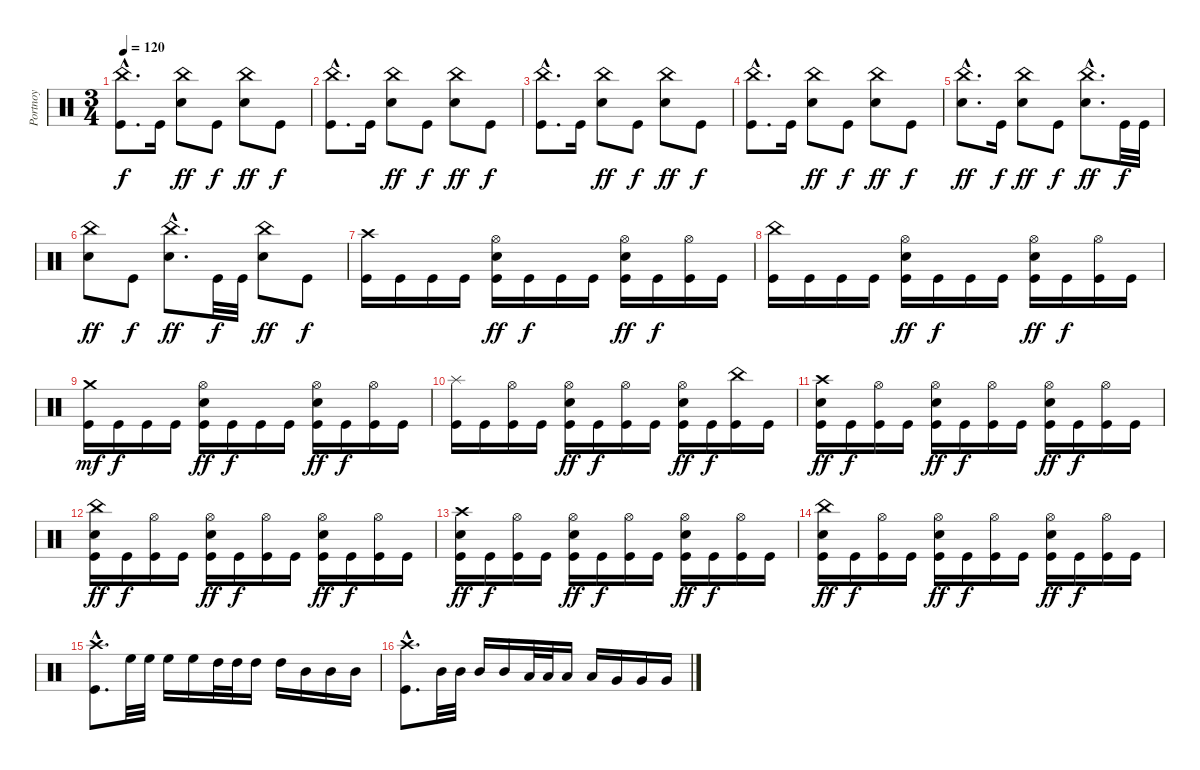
\track ("Portnoy" "Portnoy") {instrument percussion}
\staff {score}
\articulation defaults
\ts (3 4)
\tempo 120
\clef neutral
\ks c
("China (hit)"{hac} "Kick (hit)"{hac}).8{d dy f} "Kick (hit)".16 ("China (hit)" "Electric Snare (hit)").8{dy ff} "Kick (hit)".8{dy f} ("China (hit)" "Electric Snare (hit)").8{dy ff} "Kick (hit)".8{dy f} |
("China (hit)"{hac} "Kick (hit)"{hac}).8{d} "Kick (hit)".16 ("China (hit)" "Electric Snare (hit)").8{dy ff} "Kick (hit)".8{dy f} ("China (hit)" "Electric Snare (hit)").8{dy ff} "Kick (hit)".8{dy f} |
("China (hit)"{hac} "Kick (hit)"{hac}).8{d} "Kick (hit)".16 ("China (hit)" "Electric Snare (hit)").8{dy ff} "Kick (hit)".8{dy f} ("China (hit)" "Electric Snare (hit)").8{dy ff} "Kick (hit)".8{dy f} |
("China (hit)"{hac} "Kick (hit)"{hac}).8{d} "Kick (hit)".16 ("China (hit)" "Electric Snare (hit)").8{dy ff} "Kick (hit)".8{dy f} ("China (hit)" "Electric Snare (hit)").8{dy ff} "Kick (hit)".8{dy f} |
("China (hit)"{hac} "Electric Snare (hit)"{hac}).8{d dy ff} "Kick (hit)".16{dy f} ("China (hit)" "Electric Snare (hit)").8{dy ff} "Kick (hit)".8{dy f} ("China (hit)"{hac} "Electric Snare (hit)"{hac}).8{d dy ff} "Kick (hit)".32{dy f} "Kick (hit)".32 |
("China (hit)" "Electric Snare (hit)").8{dy ff} "Kick (hit)".8{dy f} ("China (hit)"{hac} "Electric Snare (hit)"{hac}).8{d dy ff} "Kick (hit)".32{dy f} "Kick (hit)".32 ("China (hit)" "Electric Snare (hit)").8{dy ff} "Kick (hit)".8{dy f} |
("Crash high (hit)" "Kick (hit)").16 "Kick (hit)".16 "Kick (hit)".16 "Kick (hit)".16 ("Hi-Hat (open)" "Electric Snare (hit)" "Kick (hit)").16{dy ff} "Kick (hit)".16{dy f} "Kick (hit)".16 "Kick (hit)".16 ("Hi-Hat (open)" "Electric Snare (hit)" "Kick (hit)").16{dy ff} "Kick (hit)".16{dy f} ("Hi-Hat (open)" "Kick (hit)").16 "Kick (hit)".16 |
("China (hit)" "Kick (hit)").16 "Kick (hit)".16 "Kick (hit)".16 "Kick (hit)".16 ("Hi-Hat (open)" "Electric Snare (hit)" "Kick (hit)").16{dy ff} "Kick (hit)".16{dy f} "Kick (hit)".16 "Kick (hit)".16 ("Hi-Hat (open)" "Electric Snare (hit)" "Kick (hit)").16{dy ff} "Kick (hit)".16{dy f} ("Hi-Hat (open)" "Kick (hit)").16 "Kick (hit)".16 |
("Crash medium (hit)" "Kick (hit)").16{dy mf} "Kick (hit)".16{dy f} "Kick (hit)".16 "Kick (hit)".16 ("Hi-Hat (open)" "Electric Snare (hit)" "Kick (hit)").16{dy ff} "Kick (hit)".16{dy f} "Kick (hit)".16 "Kick (hit)".16 ("Hi-Hat (open)" "Electric Snare (hit)" "Kick (hit)").16{dy ff} "Kick (hit)".16{dy f} ("Hi-Hat (open)" "Kick (hit)").16 "Kick (hit)".16 |
("Splash (hit)" "Kick (hit)").16 "Kick (hit)".16 ("Hi-Hat (open)" "Kick (hit)").16 "Kick (hit)".16 ("Hi-Hat (open)" "Electric Snare (hit)" "Kick (hit)").16{dy ff} "Kick (hit)".16{dy f} ("Hi-Hat (open)" "Kick (hit)").16 "Kick (hit)".16 ("Hi-Hat (open)" "Electric Snare (hit)" "Kick (hit)").16{dy ff} "Kick (hit)".16{dy f} ("China (hit)" "Kick (hit)").16 "Kick (hit)".16 |
("Crash high (hit)" "Electric Snare (hit)" "Kick (hit)").16{dy ff} "Kick (hit)".16{dy f} ("Hi-Hat (open)" "Kick (hit)").16 "Kick (hit)".16 ("Hi-Hat (open)" "Electric Snare (hit)" "Kick (hit)").16{dy ff} "Kick (hit)".16{dy f} ("Hi-Hat (open)" "Kick (hit)").16 "Kick (hit)".16 ("Hi-Hat (open)" "Electric Snare (hit)" "Kick (hit)").16{dy ff} "Kick (hit)".16{dy f} ("Hi-Hat (open)" "Kick (hit)").16 "Kick (hit)".16 |
("China (hit)" "Electric Snare (hit)" "Kick (hit)").16{dy ff} "Kick (hit)".16{dy f} ("Hi-Hat (open)" "Kick (hit)").16 "Kick (hit)".16 ("Hi-Hat (open)" "Electric Snare (hit)" "Kick (hit)").16{dy ff} "Kick (hit)".16{dy f} ("Hi-Hat (open)" "Kick (hit)").16 "Kick (hit)".16 ("Hi-Hat (open)" "Electric Snare (hit)" "Kick (hit)").16{dy ff} "Kick (hit)".16{dy f} ("Hi-Hat (open)" "Kick (hit)").16 "Kick (hit)".16 |
("Crash high (hit)" "Electric Snare (hit)" "Kick (hit)").16{dy ff} "Kick (hit)".16{dy f} ("Hi-Hat (open)" "Kick (hit)").16 "Kick (hit)".16 ("Hi-Hat (open)" "Electric Snare (hit)" "Kick (hit)").16{dy ff} "Kick (hit)".16{dy f} ("Hi-Hat (open)" "Kick (hit)").16 "Kick (hit)".16 ("Hi-Hat (open)" "Electric Snare (hit)" "Kick (hit)").16{dy ff} "Kick (hit)".16{dy f} ("Hi-Hat (open)" "Kick (hit)").16 "Kick (hit)".16 |
("China (hit)" "Electric Snare (hit)" "Kick (hit)").16{dy ff} "Kick (hit)".16{dy f} ("Hi-Hat (open)" "Kick (hit)").16 "Kick (hit)".16 ("Hi-Hat (open)" "Electric Snare (hit)" "Kick (hit)").16{dy ff} "Kick (hit)".16{dy f} ("Hi-Hat (open)" "Kick (hit)").16 "Kick (hit)".16 ("Hi-Hat (open)" "Electric Snare (hit)" "Kick (hit)").16{dy ff} "Kick (hit)".16{dy f} ("Hi-Hat (open)" "Kick (hit)").16 "Kick (hit)".16 |
("Crash high (hit)"{hac} "Kick (hit)"{hac}).8{d} "High Floor Tom (hit)".32 "High Floor Tom (hit)".32 "High Floor Tom (hit)".16 "High Floor Tom (hit)".16 "High Tom (hit)".32 "High Tom (hit)".32 "High Tom (hit)".16 "High Tom (hit)".16 "Mid Tom (hit)".16 "Mid Tom (hit)".16 "Mid Tom (hit)".16 |
("Crash high (hit)"{hac} "Kick (hit)"{hac}).8{d} "Mid Tom (hit)".32 "Mid Tom (hit)".32 "Mid Tom (hit)".16 "Mid Tom (hit)".16 "Low Tom (hit)".32 "Low Tom (hit)".32 "Low Tom (hit)".16 "Low Tom (hit)".16 "Very Low Tom (hit)".16 "Very Low Tom (hit)".16 "Very Low Tom (hit)".16
